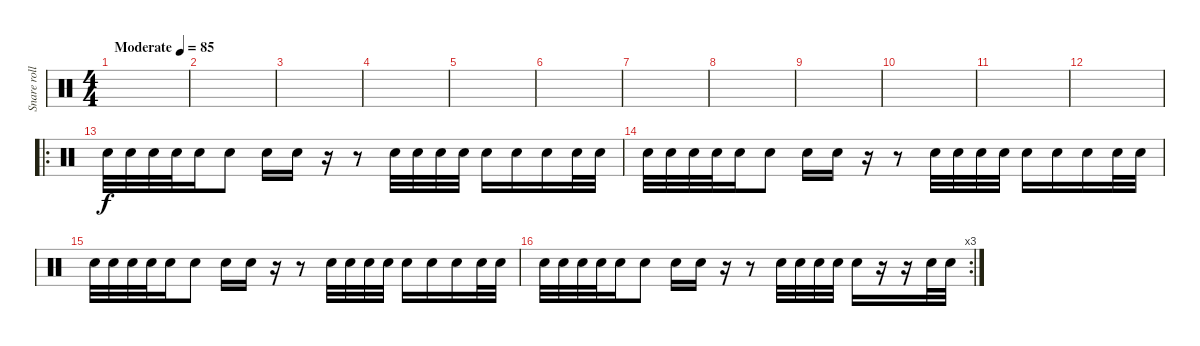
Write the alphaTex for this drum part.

\track ("Snare rolls" "Snare roll") {instrument percussion}
\staff {score}
\articulation defaults
\ts (4 4)
\tempo (85 "Moderate")
\clef neutral
\ks c
|
|
|
|
|
|
|
|
|
|
|
|
\ro "Electric Snare (hit)".32{volume 13} "Electric Snare (hit)".32 "Electric Snare (hit)".32 "Electric Snare (hit)".32 "Electric Snare (hit)".16 "Electric Snare (hit)".8 "Electric Snare (hit)".16 "Electric Snare (hit)".16
r.16 r.8 "Electric Snare (hit)".32 "Electric Snare (hit)".32 "Electric Snare (hit)".32 "Electric Snare (hit)".32 "Electric Snare (hit)".16 "Electric Snare (hit)".16 "Electric Snare (hit)".16 "Electric Snare (hit)".32 "Electric Snare (hit)".32 |
"Electric Snare (hit)".32 "Electric Snare (hit)".32 "Electric Snare (hit)".32 "Electric Snare (hit)".32 "Electric Snare (hit)".16 "Electric Snare (hit)".8 "Electric Snare (hit)".16 "Electric Snare (hit)".16 r.16 r.8 "Electric Snare (hit)".32 "Electric Snare (hit)".32 "Electric Snare (hit)".32 "Electric Snare (hit)".32 "Electric Snare (hit)".16 "Electric Snare (hit)".16 "Electric Snare (hit)".16 "Electric Snare (hit)".32 "Electric Snare (hit)".32 |
"Electric Snare (hit)".32 "Electric Snare (hit)".32 "Electric Snare (hit)".32 "Electric Snare (hit)".32 "Electric Snare (hit)".16 "Electric Snare (hit)".8 "Electric Snare (hit)".16 "Electric Snare (hit)".16 r.16 r.8 "Electric Snare (hit)".32 "Electric Snare (hit)".32 "Electric Snare (hit)".32 "Electric Snare (hit)".32 "Electric Snare (hit)".16 "Electric Snare (hit)".16 "Electric Snare (hit)".16 "Electric Snare (hit)".32 "Electric Snare (hit)".32 |
\rc 3 "Electric Snare (hit)".32 "Electric Snare (hit)".32 "Electric Snare (hit)".32 "Electric Snare (hit)".32 "Electric Snare (hit)".16 "Electric Snare (hit)".8 "Electric Snare (hit)".16 "Electric Snare (hit)".16
r.16 r.8 "Electric Snare (hit)".32 "Electric Snare (hit)".32 "Electric Snare (hit)".32 "Electric Snare (hit)".32 "Electric Snare (hit)".16 r.16 r.16 "Electric Snare (hit)".32 "Electric Snare (hit)".32
